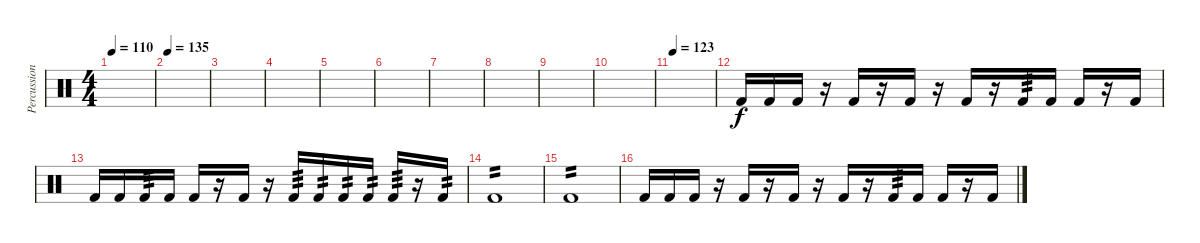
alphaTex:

\track ("Percussion" "Percussion") {solo instrument percussion}
\staff {score}
\articulation defaults
\ts (4 4)
\tempo 110
\clef neutral
\ks c
|
\tempo 135
|
|
|
|
|
|
|
|
|
\tempo 123
|
"Kick (hit) 2".16 "Kick (hit) 2".16 "Kick (hit) 2".16 r.16 "Kick (hit) 2".16 r.16 "Kick (hit) 2".16 r.16 "Kick (hit) 2".16 r.16 "Kick (hit) 2".16{tp 3} "Kick (hit) 2".16 "Kick (hit) 2".16 r.16 "Kick (hit) 2".16 |
"Kick (hit) 2".16 "Kick (hit) 2".16 "Kick (hit) 2".16{tp 3} "Kick (hit) 2".16 "Kick (hit) 2".16 r.16 "Kick (hit) 2".16 r.16 "Kick (hit) 2".16{tp 3} "Kick (hit) 2".16{tp 2} "Kick (hit) 2".16{tp 2} "Kick (hit) 2".16{tp 2} "Kick (hit) 2".16{tp 3} r.16 "Kick (hit) 2".16{tp 2} |
"Kick (hit) 2".1{tp 2} |
"Kick (hit) 2".1{tp 2} |
"Kick (hit) 2".16 "Kick (hit) 2".16 "Kick (hit) 2".16 r.16 "Kick (hit) 2".16 r.16 "Kick (hit) 2".16 r.16 "Kick (hit) 2".16 r.16 "Kick (hit) 2".16{tp 3} "Kick (hit) 2".16 "Kick (hit) 2".16 r.16 "Kick (hit) 2".16
